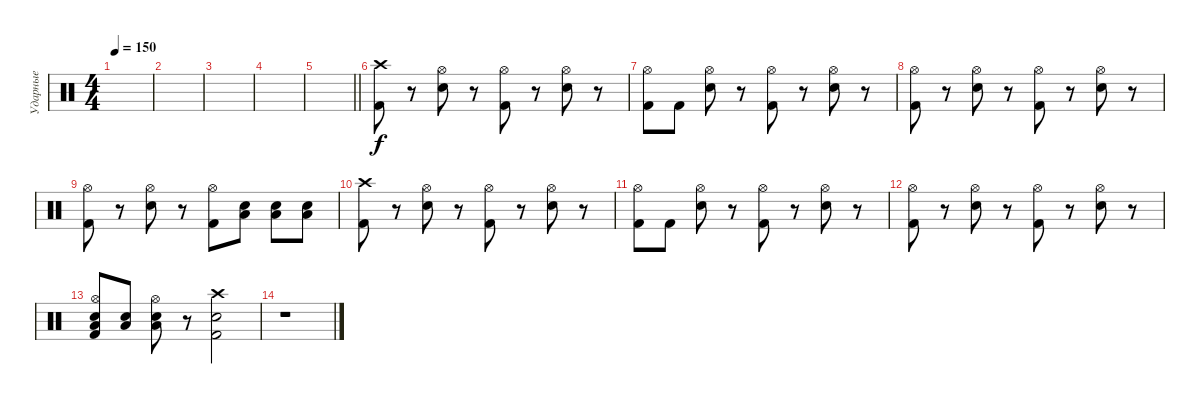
\track ("Ударные" "Ударные") {instrument percussion}
\staff {score}
\articulation defaults
\ts (4 4)
\tempo 150
\clef neutral
\ks c
|
|
|
|
\barLineRight lightlight
|
\section ("" "")
("Crash high (hit)" "Kick (hit) 2").8 r.8 ("Hi-Hat (open)" "Snare (hit) 2").8 r.8 ("Hi-Hat (open)" "Kick (hit) 2").8 r.8 ("Hi-Hat (open)" "Snare (hit) 2").8 r.8 |
("Hi-Hat (open)" "Kick (hit) 2").8 "Kick (hit) 2".8 ("Hi-Hat (open)" "Snare (hit) 2").8 r.8 ("Hi-Hat (open)" "Kick (hit) 2").8 r.8 ("Hi-Hat (open)" "Snare (hit) 2").8 r.8 |
("Hi-Hat (open)" "Kick (hit) 2").8 r.8 ("Hi-Hat (open)" "Snare (hit) 2").8 r.8 ("Hi-Hat (open)" "Kick (hit) 2").8 r.8 ("Hi-Hat (open)" "Snare (hit) 2").8 r.8 |
("Hi-Hat (open)" "Kick (hit) 2").8 r.8 ("Hi-Hat (open)" "Snare (hit) 2").8 r.8 ("Hi-Hat (open)" "Kick (hit) 2").8 ("Snare (hit) 2" "Low Tom (hit)").8 ("Snare (hit) 2" "Low Tom (hit)").8 ("Snare (hit) 2" "Low Tom (hit)").8 |
("Crash high (hit)" "Kick (hit) 2").8 r.8 ("Hi-Hat (open)" "Snare (hit) 2").8 r.8 ("Hi-Hat (open)" "Kick (hit) 2").8 r.8 ("Hi-Hat (open)" "Snare (hit) 2").8 r.8 |
("Hi-Hat (open)" "Kick (hit) 2").8 "Kick (hit) 2".8 ("Hi-Hat (open)" "Snare (hit) 2").8 r.8 ("Hi-Hat (open)" "Kick (hit) 2").8 r.8 ("Hi-Hat (open)" "Snare (hit) 2").8 r.8 |
("Hi-Hat (open)" "Kick (hit) 2").8 r.8 ("Hi-Hat (open)" "Snare (hit) 2").8 r.8 ("Hi-Hat (open)" "Kick (hit) 2").8 r.8 ("Hi-Hat (open)" "Snare (hit) 2").8 r.8 |
("Hi-Hat (open)" "Snare (hit) 2" "Low Tom (hit)" "Kick (hit) 2").8 ("Snare (hit) 2" "Low Tom (hit)").8 ("Hi-Hat (open)" "Snare (hit) 2" "Low Tom (hit)").8 r.8 ("Crash high (hit)" "Snare (hit) 2" "Kick (hit) 2").2 |
r.1
